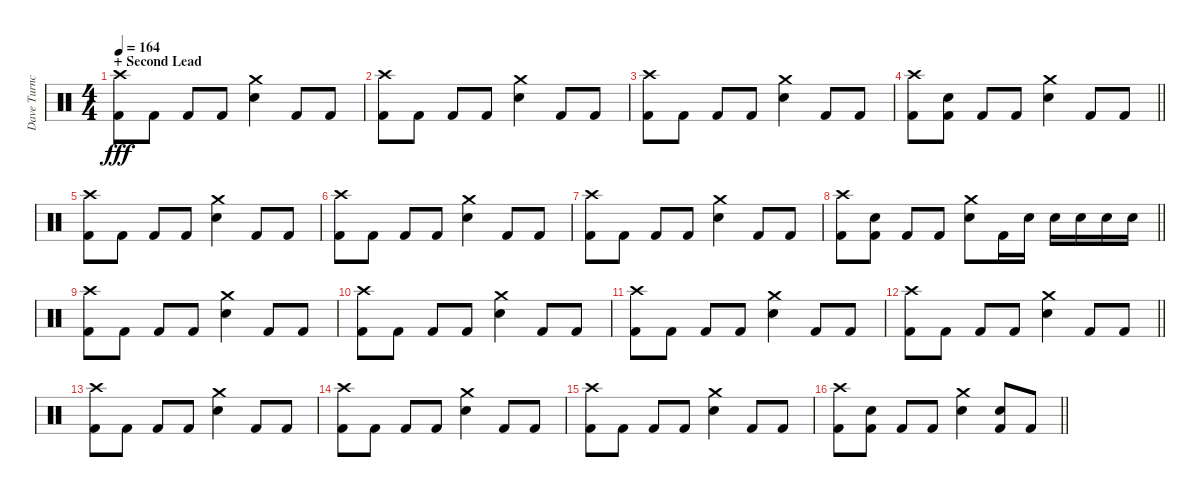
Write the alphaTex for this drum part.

\track ("Dave Turncrantz" "Dave Turnc") {instrument percussion}
\staff {score}
\articulation defaults
\ts (4 4)
\section ("" "+ Second Lead")
\tempo 164
\clef neutral
\ks c
("Crash high (hit)" "Kick (hit) 2").8{dy fff} "Kick (hit) 2".8 "Kick (hit) 2".8 "Kick (hit) 2".8 ("Crash medium (hit)" "Electric Snare (hit)").4 "Kick (hit) 2".8 "Kick (hit) 2".8 |
("Crash high (hit)" "Kick (hit) 2").8 "Kick (hit) 2".8 "Kick (hit) 2".8 "Kick (hit) 2".8 ("Crash medium (hit)" "Electric Snare (hit)").4 "Kick (hit) 2".8 "Kick (hit) 2".8 |
("Crash high (hit)" "Kick (hit) 2").8 "Kick (hit) 2".8 "Kick (hit) 2".8 "Kick (hit) 2".8 ("Crash medium (hit)" "Electric Snare (hit)").4 "Kick (hit) 2".8 "Kick (hit) 2".8 |
\barLineRight lightlight
("Crash high (hit)" "Kick (hit) 2").8 ("Electric Snare (hit)" "Kick (hit) 2").8 "Kick (hit) 2".8 "Kick (hit) 2".8 ("Crash medium (hit)" "Electric Snare (hit)").4 "Kick (hit) 2".8 "Kick (hit) 2".8 |
\section ("" "")
("Crash high (hit)" "Kick (hit) 2").8 "Kick (hit) 2".8 "Kick (hit) 2".8 "Kick (hit) 2".8 ("Crash medium (hit)" "Electric Snare (hit)").4 "Kick (hit) 2".8 "Kick (hit) 2".8 |
("Crash high (hit)" "Kick (hit) 2").8 "Kick (hit) 2".8 "Kick (hit) 2".8 "Kick (hit) 2".8 ("Crash medium (hit)" "Electric Snare (hit)").4 "Kick (hit) 2".8 "Kick (hit) 2".8 |
("Crash high (hit)" "Kick (hit) 2").8 "Kick (hit) 2".8 "Kick (hit) 2".8 "Kick (hit) 2".8 ("Crash medium (hit)" "Electric Snare (hit)").4 "Kick (hit) 2".8 "Kick (hit) 2".8 |
\barLineRight lightlight
("Crash high (hit)" "Kick (hit) 2").8 ("Electric Snare (hit)" "Kick (hit) 2").8 "Kick (hit) 2".8 "Kick (hit) 2".8 ("Crash medium (hit)" "Electric Snare (hit)").8 "Kick (hit) 2".16 "Electric Snare (hit)".16 "Electric Snare (hit)".16 "Electric Snare (hit)".16 "Electric Snare (hit)".16 "Electric Snare (hit)".16 |
\section ("" "")
("Crash high (hit)" "Kick (hit) 2").8 "Kick (hit) 2".8 "Kick (hit) 2".8 "Kick (hit) 2".8 ("Crash medium (hit)" "Electric Snare (hit)").4 "Kick (hit) 2".8 "Kick (hit) 2".8 |
("Crash high (hit)" "Kick (hit) 2").8 "Kick (hit) 2".8 "Kick (hit) 2".8 "Kick (hit) 2".8 ("Crash medium (hit)" "Electric Snare (hit)").4 "Kick (hit) 2".8 "Kick (hit) 2".8 |
("Crash high (hit)" "Kick (hit) 2").8 "Kick (hit) 2".8 "Kick (hit) 2".8 "Kick (hit) 2".8 ("Crash medium (hit)" "Electric Snare (hit)").4 "Kick (hit) 2".8 "Kick (hit) 2".8 |
\barLineRight lightlight
("Crash high (hit)" "Kick (hit) 2").8 "Kick (hit) 2".8 "Kick (hit) 2".8 "Kick (hit) 2".8 ("Crash medium (hit)" "Electric Snare (hit)").4 "Kick (hit) 2".8 "Kick (hit) 2".8 |
\section ("" "")
("Crash high (hit)" "Kick (hit) 2").8 "Kick (hit) 2".8 "Kick (hit) 2".8 "Kick (hit) 2".8 ("Crash medium (hit)" "Electric Snare (hit)").4 "Kick (hit) 2".8 "Kick (hit) 2".8 |
("Crash high (hit)" "Kick (hit) 2").8 "Kick (hit) 2".8 "Kick (hit) 2".8 "Kick (hit) 2".8 ("Crash medium (hit)" "Electric Snare (hit)").4 "Kick (hit) 2".8 "Kick (hit) 2".8 |
("Crash high (hit)" "Kick (hit) 2").8 "Kick (hit) 2".8 "Kick (hit) 2".8 "Kick (hit) 2".8 ("Crash medium (hit)" "Electric Snare (hit)").4 "Kick (hit) 2".8 "Kick (hit) 2".8 |
\barLineRight lightlight
("Crash high (hit)" "Kick (hit) 2").8 ("Electric Snare (hit)" "Kick (hit) 2").8 "Kick (hit) 2".8 "Kick (hit) 2".8 ("Crash medium (hit)" "Electric Snare (hit)").4 ("Electric Snare (hit)" "Kick (hit) 2").8 "Kick (hit) 2".8
